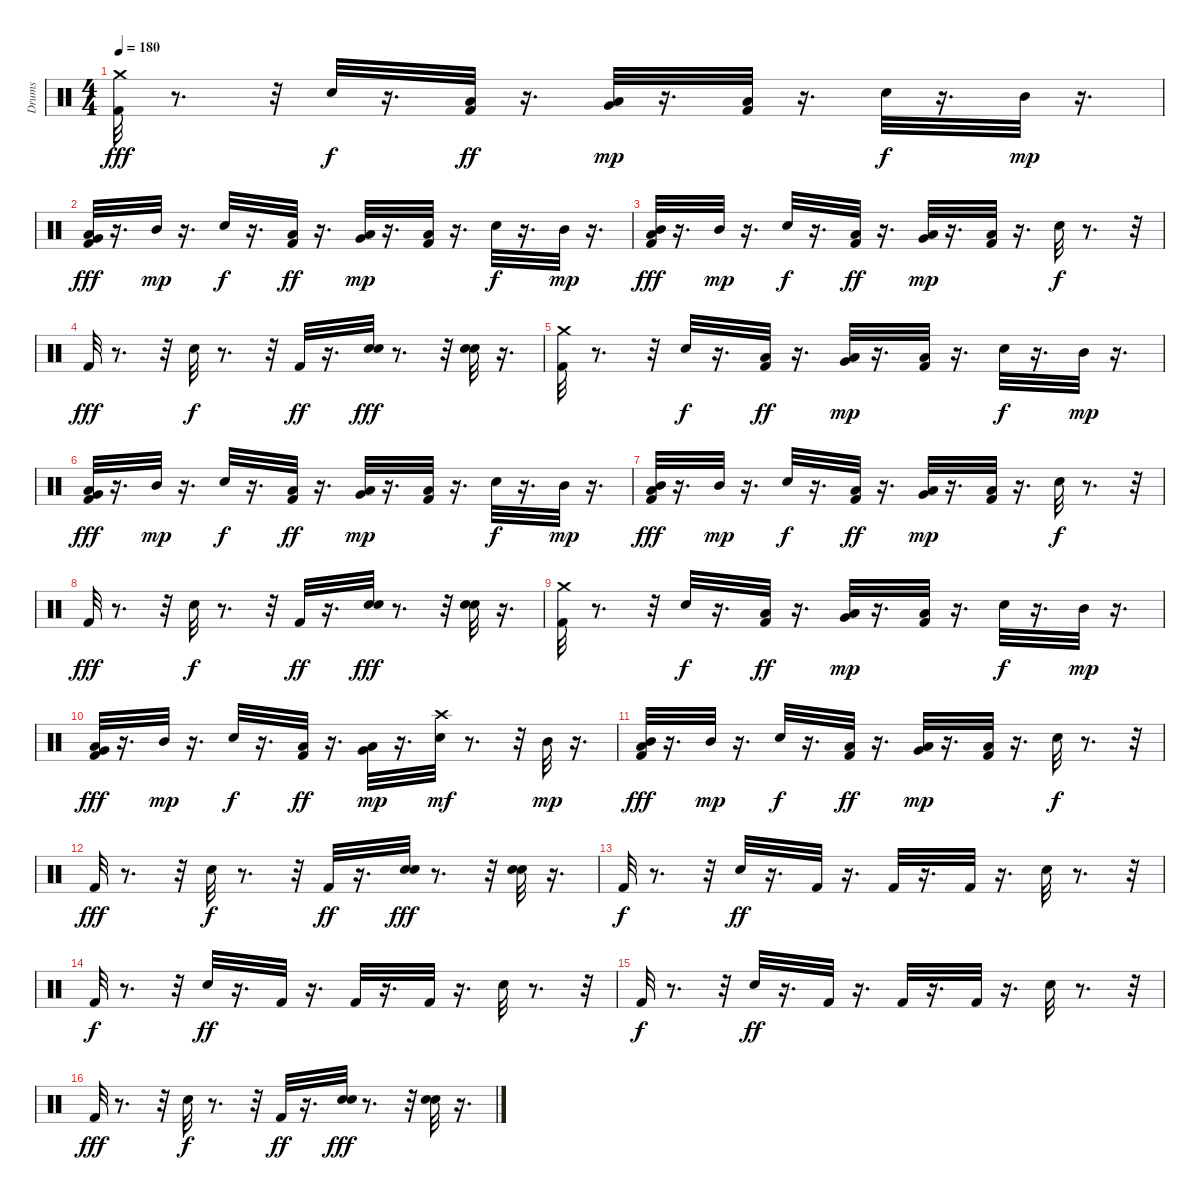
\track ("Drums" "Drums") {instrument percussion}
\staff {score}
\articulation defaults
\ts (4 4)
\tempo 180
\clef neutral
\ks c
("Kick (hit) 2" "Crash medium (hit)").32{dy fff} r.8{d} r.32 "Snare (hit) 2".32{dy f} r.16{d} ("Low Tom (hit)" "Kick (hit) 2").32{dy ff} r.16{d} ("Very Low Tom (hit)" "Low Floor Tom (hit)").32{dy mp} r.16{d} ("Low Tom (hit)" "Kick (hit) 2").32 r.16{d} "Snare (hit) 2".32{dy f} r.16{d} "Mid Tom (hit)".32{dy mp} r.16{d} |
("Low Tom (hit)" "Very Low Tom (hit)" "Kick (hit) 2").32{dy fff} r.16{d} "Mid Tom (hit)".32{dy mp} r.16{d} "Snare (hit) 2".32{dy f} r.16{d} ("Low Tom (hit)" "Kick (hit) 2").32{dy ff} r.16{d} ("Very Low Tom (hit)" "Low Floor Tom (hit)").32{dy mp} r.16{d} ("Low Tom (hit)" "Kick (hit) 2").32 r.16{d} "Snare (hit) 2".32{dy f} r.16{d} "Mid Tom (hit)".32{dy mp} r.16{d} |
("Mid Tom (hit)" "Low Tom (hit)" "Kick (hit) 2").32{dy fff} r.16{d} "Mid Tom (hit)".32{dy mp} r.16{d} "Snare (hit) 2".32{dy f} r.16{d} ("Low Tom (hit)" "Kick (hit) 2").32{dy ff} r.16{d} ("Very Low Tom (hit)" "Low Floor Tom (hit)").32{dy mp} r.16{d} ("Low Tom (hit)" "Kick (hit) 2").32 r.16{d} "Snare (hit) 2".32{dy f} r.8{d} r.32 |
"Kick (hit) 2".32{dy fff} r.8{d} r.32 "Snare (hit) 2".32{dy f} r.8{d} r.32 "Kick (hit) 2".32{dy ff} r.16{d} ("Electric Snare (hit)" "Snare (hit) 2").32{dy fff} r.8{d} r.32 ("Electric Snare (hit)" "Snare (hit) 2").32 r.16{d} |
("Kick (hit) 2" "Crash medium (hit)").32 r.8{d} r.32 "Snare (hit) 2".32{dy f} r.16{d} ("Low Tom (hit)" "Kick (hit) 2").32{dy ff} r.16{d} ("Very Low Tom (hit)" "Low Floor Tom (hit)").32{dy mp} r.16{d} ("Low Tom (hit)" "Kick (hit) 2").32 r.16{d} "Snare (hit) 2".32{dy f} r.16{d} "Mid Tom (hit)".32{dy mp} r.16{d} |
("Low Tom (hit)" "Very Low Tom (hit)" "Kick (hit) 2").32{dy fff} r.16{d} "Mid Tom (hit)".32{dy mp} r.16{d} "Snare (hit) 2".32{dy f} r.16{d} ("Low Tom (hit)" "Kick (hit) 2").32{dy ff} r.16{d} ("Very Low Tom (hit)" "Low Floor Tom (hit)").32{dy mp} r.16{d} ("Low Tom (hit)" "Kick (hit) 2").32 r.16{d} "Snare (hit) 2".32{dy f} r.16{d} "Mid Tom (hit)".32{dy mp} r.16{d} |
("Mid Tom (hit)" "Low Tom (hit)" "Kick (hit) 2").32{dy fff} r.16{d} "Mid Tom (hit)".32{dy mp} r.16{d} "Snare (hit) 2".32{dy f} r.16{d} ("Low Tom (hit)" "Kick (hit) 2").32{dy ff} r.16{d} ("Very Low Tom (hit)" "Low Floor Tom (hit)").32{dy mp} r.16{d} ("Low Tom (hit)" "Kick (hit) 2").32 r.16{d} "Snare (hit) 2".32{dy f} r.8{d} r.32 |
"Kick (hit) 2".32{dy fff} r.8{d} r.32 "Snare (hit) 2".32{dy f} r.8{d} r.32 "Kick (hit) 2".32{dy ff} r.16{d} ("Electric Snare (hit)" "Snare (hit) 2").32{dy fff} r.8{d} r.32 ("Electric Snare (hit)" "Snare (hit) 2").32 r.16{d} |
("Kick (hit) 2" "Crash medium (hit)").32 r.8{d} r.32 "Snare (hit) 2".32{dy f} r.16{d} ("Low Tom (hit)" "Kick (hit) 2").32{dy ff} r.16{d} ("Very Low Tom (hit)" "Low Floor Tom (hit)").32{dy mp} r.16{d} ("Low Tom (hit)" "Kick (hit) 2").32 r.16{d} "Snare (hit) 2".32{dy f} r.16{d} "Mid Tom (hit)".32{dy mp} r.16{d} |
("Low Tom (hit)" "Very Low Tom (hit)" "Kick (hit) 2").32{dy fff} r.16{d} "Mid Tom (hit)".32{dy mp} r.16{d} "Snare (hit) 2".32{dy f} r.16{d} ("Low Tom (hit)" "Kick (hit) 2").32{dy ff} r.16{d} ("Very Low Tom (hit)" "Low Floor Tom (hit)").32{dy mp} r.16{d} ("Crash high (hit)" "Snare (hit) 2").32{dy mf} r.8{d} r.32 "Mid Tom (hit)".32{dy mp} r.16{d} |
("Mid Tom (hit)" "Low Tom (hit)" "Kick (hit) 2").32{dy fff} r.16{d} "Mid Tom (hit)".32{dy mp} r.16{d} "Snare (hit) 2".32{dy f} r.16{d} ("Low Tom (hit)" "Kick (hit) 2").32{dy ff} r.16{d} ("Very Low Tom (hit)" "Low Floor Tom (hit)").32{dy mp} r.16{d} ("Low Tom (hit)" "Kick (hit) 2").32 r.16{d} "Snare (hit) 2".32{dy f} r.8{d} r.32 |
"Kick (hit) 2".32{dy fff} r.8{d} r.32 "Snare (hit) 2".32{dy f} r.8{d} r.32 "Kick (hit) 2".32{dy ff} r.16{d} ("Electric Snare (hit)" "Snare (hit) 2").32{dy fff} r.8{d} r.32 ("Electric Snare (hit)" "Snare (hit) 2").32 r.16{d} |
"Kick (hit) 2".32{dy f} r.8{d} r.32 "Snare (hit) 2".32{dy ff} r.16{d} "Kick (hit) 2".32 r.16{d} "Kick (hit) 2".32 r.16{d} "Kick (hit) 2".32 r.16{d} "Snare (hit) 2".32 r.8{d} r.32 |
"Kick (hit) 2".32{dy f} r.8{d} r.32 "Snare (hit) 2".32{dy ff} r.16{d} "Kick (hit) 2".32 r.16{d} "Kick (hit) 2".32 r.16{d} "Kick (hit) 2".32 r.16{d} "Snare (hit) 2".32 r.8{d} r.32 |
"Kick (hit) 2".32{dy f} r.8{d} r.32 "Snare (hit) 2".32{dy ff} r.16{d} "Kick (hit) 2".32 r.16{d} "Kick (hit) 2".32 r.16{d} "Kick (hit) 2".32 r.16{d} "Snare (hit) 2".32 r.8{d} r.32 |
"Kick (hit) 2".32{dy fff} r.8{d} r.32 "Snare (hit) 2".32{dy f} r.8{d} r.32 "Kick (hit) 2".32{dy ff} r.16{d} ("Electric Snare (hit)" "Snare (hit) 2").32{dy fff} r.8{d} r.32 ("Electric Snare (hit)" "Snare (hit) 2").32 r.16{d}
